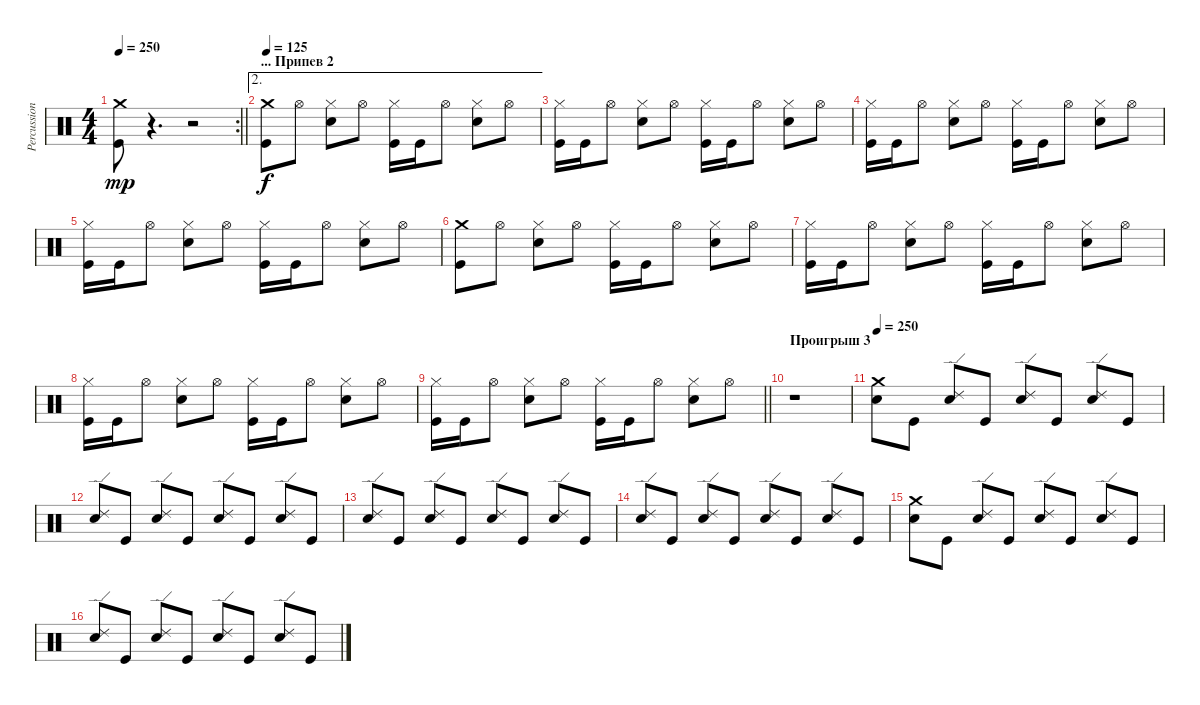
\track ("Percussion" "Percussion") {instrument percussion}
\staff {score}
\articulation defaults
\rc 2
\ts (4 4)
\tempo 250
\clef neutral
\barLineRight lightlight
\ks c
("Crash medium (hit)" "Kick (hit)").8{dy mp} r.4{d} r.2 |
\ae 2
\section ("" "... Припев 2")
\tempo 125
("Crash medium (hit)" "Kick (hit)").8{dy f} "Hi-Hat (open)".8 ("Hi-Hat (closed)" "Electric Snare (hit)").8 "Hi-Hat (open)".8 ("Hi-Hat (closed)" "Kick (hit)").16 "Kick (hit)".16 "Hi-Hat (open)".8 ("Hi-Hat (closed)" "Electric Snare (hit)").8 "Hi-Hat (open)".8 |
("Hi-Hat (closed)" "Kick (hit)").16 "Kick (hit)".16 "Hi-Hat (open)".8 ("Hi-Hat (closed)" "Electric Snare (hit)").8 "Hi-Hat (open)".8 ("Hi-Hat (closed)" "Kick (hit)").16 "Kick (hit)".16 "Hi-Hat (open)".8 ("Hi-Hat (closed)" "Electric Snare (hit)").8 "Hi-Hat (open)".8 |
("Hi-Hat (closed)" "Kick (hit)").16 "Kick (hit)".16 "Hi-Hat (open)".8 ("Hi-Hat (closed)" "Electric Snare (hit)").8 "Hi-Hat (open)".8 ("Hi-Hat (closed)" "Kick (hit)").16 "Kick (hit)".16 "Hi-Hat (open)".8 ("Hi-Hat (closed)" "Electric Snare (hit)").8 "Hi-Hat (open)".8 |
("Hi-Hat (closed)" "Kick (hit)").16 "Kick (hit)".16 "Hi-Hat (open)".8 ("Hi-Hat (closed)" "Electric Snare (hit)").8 "Hi-Hat (open)".8 ("Hi-Hat (closed)" "Kick (hit)").16 "Kick (hit)".16 "Hi-Hat (open)".8 ("Hi-Hat (closed)" "Electric Snare (hit)").8 "Hi-Hat (open)".8 |
("Crash medium (hit)" "Kick (hit)").8 "Hi-Hat (open)".8 ("Hi-Hat (closed)" "Electric Snare (hit)").8 "Hi-Hat (open)".8 ("Hi-Hat (closed)" "Kick (hit)").16 "Kick (hit)".16 "Hi-Hat (open)".8 ("Hi-Hat (closed)" "Electric Snare (hit)").8 "Hi-Hat (open)".8 |
("Hi-Hat (closed)" "Kick (hit)").16 "Kick (hit)".16 "Hi-Hat (open)".8 ("Hi-Hat (closed)" "Electric Snare (hit)").8 "Hi-Hat (open)".8 ("Hi-Hat (closed)" "Kick (hit)").16 "Kick (hit)".16 "Hi-Hat (open)".8 ("Hi-Hat (closed)" "Electric Snare (hit)").8 "Hi-Hat (open)".8 |
("Hi-Hat (closed)" "Kick (hit)").16 "Kick (hit)".16 "Hi-Hat (open)".8 ("Hi-Hat (closed)" "Electric Snare (hit)").8 "Hi-Hat (open)".8 ("Hi-Hat (closed)" "Kick (hit)").16 "Kick (hit)".16 "Hi-Hat (open)".8 ("Hi-Hat (closed)" "Electric Snare (hit)").8 "Hi-Hat (open)".8 |
\barLineRight lightlight
("Hi-Hat (closed)" "Kick (hit)").16 "Kick (hit)".16 "Hi-Hat (open)".8 ("Hi-Hat (closed)" "Electric Snare (hit)").8 "Hi-Hat (open)".8 ("Hi-Hat (closed)" "Kick (hit)").16 "Kick (hit)".16 "Hi-Hat (open)".8 ("Hi-Hat (closed)" "Electric Snare (hit)").8 "Hi-Hat (open)".8 |
\section ("" "Проигрыш 3")
r.1 |
\tempo 250
("Crash medium (hit)" "Electric Snare (hit)").8 "Kick (hit)".8 ("Ride (edge) 2" "Electric Snare (hit)").8 "Kick (hit)".8 ("Ride (edge) 2" "Electric Snare (hit)").8 "Kick (hit)".8 ("Ride (edge) 2" "Electric Snare (hit)").8 "Kick (hit)".8 |
("Ride (edge) 2" "Electric Snare (hit)").8 "Kick (hit)".8 ("Ride (edge) 2" "Electric Snare (hit)").8 "Kick (hit)".8 ("Ride (edge) 2" "Electric Snare (hit)").8 "Kick (hit)".8 ("Ride (edge) 2" "Electric Snare (hit)").8 "Kick (hit)".8 |
("Ride (edge) 2" "Electric Snare (hit)").8 "Kick (hit)".8 ("Ride (edge) 2" "Electric Snare (hit)").8 "Kick (hit)".8 ("Ride (edge) 2" "Electric Snare (hit)").8 "Kick (hit)".8 ("Ride (edge) 2" "Electric Snare (hit)").8 "Kick (hit)".8 |
("Ride (edge) 2" "Electric Snare (hit)").8 "Kick (hit)".8 ("Ride (edge) 2" "Electric Snare (hit)").8 "Kick (hit)".8 ("Ride (edge) 2" "Electric Snare (hit)").8 "Kick (hit)".8 ("Ride (edge) 2" "Electric Snare (hit)").8 "Kick (hit)".8 |
("Crash medium (hit)" "Electric Snare (hit)").8 "Kick (hit)".8 ("Ride (edge) 2" "Electric Snare (hit)").8 "Kick (hit)".8 ("Ride (edge) 2" "Electric Snare (hit)").8 "Kick (hit)".8 ("Ride (edge) 2" "Electric Snare (hit)").8 "Kick (hit)".8 |
("Ride (edge) 2" "Electric Snare (hit)").8 "Kick (hit)".8 ("Ride (edge) 2" "Electric Snare (hit)").8 "Kick (hit)".8 ("Ride (edge) 2" "Electric Snare (hit)").8 "Kick (hit)".8 ("Ride (edge) 2" "Electric Snare (hit)").8 "Kick (hit)".8
